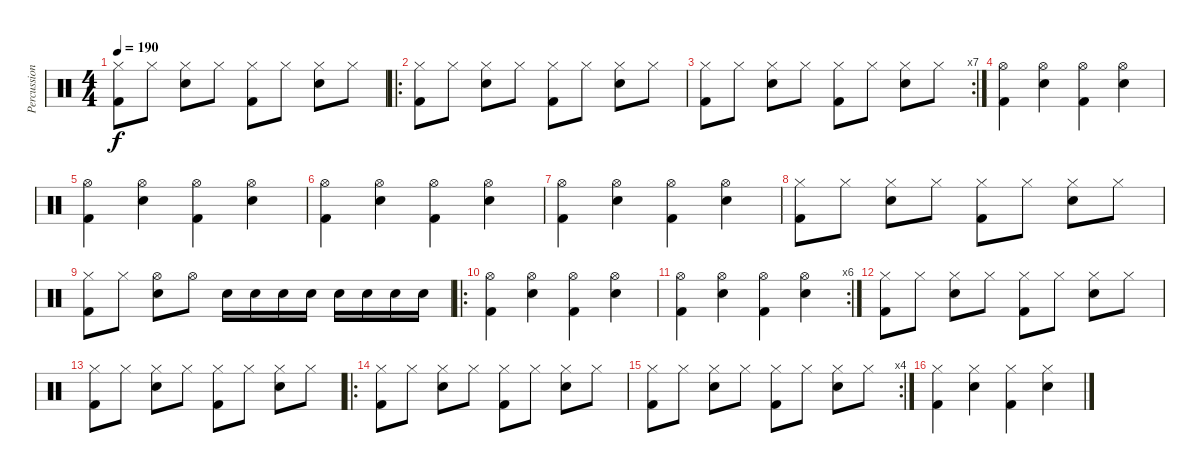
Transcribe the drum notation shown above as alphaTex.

\track ("Percussion" "Percussion") {instrument percussion}
\staff {score}
\articulation defaults
\ts (4 4)
\tempo 190
\clef neutral
\ks c
("Hi-Hat (closed)" "Kick (hit) 2").8{dy f} "Hi-Hat (closed)".8 ("Hi-Hat (closed)" "Snare (hit) 2").8 "Hi-Hat (closed)".8 ("Hi-Hat (closed)" "Kick (hit) 2").8 "Hi-Hat (closed)".8 ("Hi-Hat (closed)" "Snare (hit) 2").8 "Hi-Hat (closed)".8 |
\ro
("Hi-Hat (closed)" "Kick (hit) 2").8 "Hi-Hat (closed)".8 ("Hi-Hat (closed)" "Snare (hit) 2").8 "Hi-Hat (closed)".8 ("Hi-Hat (closed)" "Kick (hit) 2").8 "Hi-Hat (closed)".8 ("Hi-Hat (closed)" "Snare (hit) 2").8 "Hi-Hat (closed)".8 |
\rc 7
("Hi-Hat (closed)" "Kick (hit) 2").8 "Hi-Hat (closed)".8 ("Hi-Hat (closed)" "Snare (hit) 2").8 "Hi-Hat (closed)".8 ("Hi-Hat (closed)" "Kick (hit) 2").8 "Hi-Hat (closed)".8 ("Hi-Hat (closed)" "Snare (hit) 2").8 "Hi-Hat (closed)".8 |
("Hi-Hat (open)" "Kick (hit) 2").4 ("Hi-Hat (open)" "Snare (hit) 2").4 ("Hi-Hat (open)" "Kick (hit) 2").4 ("Hi-Hat (open)" "Snare (hit) 2").4 |
("Hi-Hat (open)" "Kick (hit) 2").4 ("Hi-Hat (open)" "Snare (hit) 2").4 ("Hi-Hat (open)" "Kick (hit) 2").4 ("Hi-Hat (open)" "Snare (hit) 2").4 |
("Hi-Hat (open)" "Kick (hit) 2").4 ("Hi-Hat (open)" "Snare (hit) 2").4 ("Hi-Hat (open)" "Kick (hit) 2").4 ("Hi-Hat (open)" "Snare (hit) 2").4 |
("Hi-Hat (open)" "Kick (hit) 2").4 ("Hi-Hat (open)" "Snare (hit) 2").4 ("Hi-Hat (open)" "Kick (hit) 2").4 ("Hi-Hat (open)" "Snare (hit) 2").4 |
("Hi-Hat (closed)" "Kick (hit) 2").8 "Hi-Hat (closed)".8 ("Hi-Hat (closed)" "Snare (hit) 2").8 "Hi-Hat (closed)".8 ("Hi-Hat (closed)" "Kick (hit) 2").8 "Hi-Hat (closed)".8 ("Hi-Hat (closed)" "Snare (hit) 2").8 "Hi-Hat (closed)".8 |
("Hi-Hat (closed)" "Kick (hit) 2").8 "Hi-Hat (closed)".8 ("Hi-Hat (open)" "Snare (hit) 2").8 "Hi-Hat (open)".8 "Snare (hit) 2".16 "Snare (hit) 2".16 "Snare (hit) 2".16 "Snare (hit) 2".16 "Snare (hit) 2".16 "Snare (hit) 2".16 "Snare (hit) 2".16 "Snare (hit) 2".16 |
\ro
("Hi-Hat (open)" "Kick (hit) 2").4 ("Hi-Hat (open)" "Snare (hit) 2").4 ("Hi-Hat (open)" "Kick (hit) 2").4 ("Hi-Hat (open)" "Snare (hit) 2").4 |
\rc 6
("Hi-Hat (open)" "Kick (hit) 2").4 ("Hi-Hat (open)" "Snare (hit) 2").4 ("Hi-Hat (open)" "Kick (hit) 2").4 ("Hi-Hat (open)" "Snare (hit) 2").4 |
("Hi-Hat (closed)" "Kick (hit) 2").8 "Hi-Hat (closed)".8 ("Hi-Hat (closed)" "Snare (hit) 2").8 "Hi-Hat (closed)".8 ("Hi-Hat (closed)" "Kick (hit) 2").8 "Hi-Hat (closed)".8 ("Hi-Hat (closed)" "Snare (hit) 2").8 "Hi-Hat (closed)".8 |
("Hi-Hat (closed)" "Kick (hit) 2").8 "Hi-Hat (closed)".8 ("Hi-Hat (closed)" "Snare (hit) 2").8 "Hi-Hat (closed)".8 ("Hi-Hat (closed)" "Kick (hit) 2").8 "Hi-Hat (closed)".8 ("Hi-Hat (closed)" "Snare (hit) 2").8 "Hi-Hat (closed)".8 |
\ro
("Hi-Hat (closed)" "Kick (hit) 2").8 "Hi-Hat (closed)".8 ("Hi-Hat (closed)" "Snare (hit) 2").8 "Hi-Hat (closed)".8 ("Hi-Hat (closed)" "Kick (hit) 2").8 "Hi-Hat (closed)".8 ("Hi-Hat (closed)" "Snare (hit) 2").8 "Hi-Hat (closed)".8 |
\rc 4
("Hi-Hat (closed)" "Kick (hit) 2").8 "Hi-Hat (closed)".8 ("Hi-Hat (closed)" "Snare (hit) 2").8 "Hi-Hat (closed)".8 ("Hi-Hat (closed)" "Kick (hit) 2").8 "Hi-Hat (closed)".8 ("Hi-Hat (closed)" "Snare (hit) 2").8 "Hi-Hat (closed)".8 |
("Hi-Hat (closed)" "Kick (hit) 2").4 ("Hi-Hat (closed)" "Snare (hit) 2").4 ("Hi-Hat (closed)" "Kick (hit) 2").4 ("Hi-Hat (closed)" "Snare (hit) 2").4
